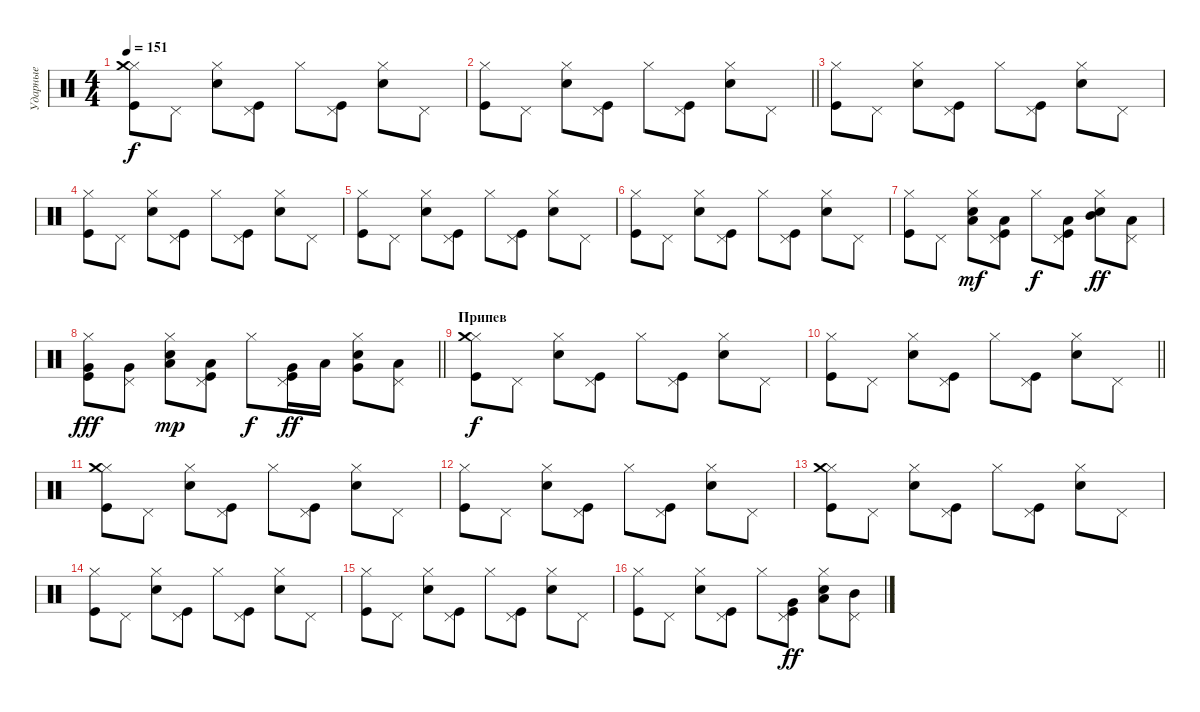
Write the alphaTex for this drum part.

\track ("Ударные" "Ударные") {instrument percussion}
\staff {score}
\articulation defaults
\ts (4 4)
\tempo 151
\clef neutral
\ks c
("Hi-Hat (closed)" "Kick (hit)" "Crash medium (hit)").8{dy f} "Pedal Hi-Hat (hit)".8 ("Hi-Hat (closed)" "Snare (hit) 2").8 ("Pedal Hi-Hat (hit)" "Kick (hit)").8 "Hi-Hat (closed)".8 ("Pedal Hi-Hat (hit)" "Kick (hit)").8 ("Hi-Hat (closed)" "Snare (hit) 2").8 "Pedal Hi-Hat (hit)".8 |
\barLineRight lightlight
("Hi-Hat (closed)" "Kick (hit)").8 "Pedal Hi-Hat (hit)".8 ("Hi-Hat (closed)" "Snare (hit) 2").8 ("Pedal Hi-Hat (hit)" "Kick (hit)").8 "Hi-Hat (closed)".8 ("Pedal Hi-Hat (hit)" "Kick (hit)").8 ("Hi-Hat (closed)" "Snare (hit) 2").8 "Pedal Hi-Hat (hit)".8 |
("Hi-Hat (closed)" "Kick (hit)").8 "Pedal Hi-Hat (hit)".8 ("Hi-Hat (closed)" "Snare (hit) 2").8 ("Pedal Hi-Hat (hit)" "Kick (hit)").8 "Hi-Hat (closed)".8 ("Pedal Hi-Hat (hit)" "Kick (hit)").8 ("Hi-Hat (closed)" "Snare (hit) 2").8 "Pedal Hi-Hat (hit)".8 |
("Hi-Hat (closed)" "Kick (hit)").8 "Pedal Hi-Hat (hit)".8 ("Hi-Hat (closed)" "Snare (hit) 2").8 ("Pedal Hi-Hat (hit)" "Kick (hit)").8 "Hi-Hat (closed)".8 ("Pedal Hi-Hat (hit)" "Kick (hit)").8 ("Hi-Hat (closed)" "Snare (hit) 2").8 "Pedal Hi-Hat (hit)".8 |
("Hi-Hat (closed)" "Kick (hit)").8 "Pedal Hi-Hat (hit)".8 ("Hi-Hat (closed)" "Snare (hit) 2").8 ("Pedal Hi-Hat (hit)" "Kick (hit)").8 "Hi-Hat (closed)".8 ("Pedal Hi-Hat (hit)" "Kick (hit)").8 ("Hi-Hat (closed)" "Snare (hit) 2").8 "Pedal Hi-Hat (hit)".8 |
("Hi-Hat (closed)" "Kick (hit)").8 "Pedal Hi-Hat (hit)".8 ("Hi-Hat (closed)" "Snare (hit) 2").8 ("Pedal Hi-Hat (hit)" "Kick (hit)").8 "Hi-Hat (closed)".8 ("Pedal Hi-Hat (hit)" "Kick (hit)").8 ("Hi-Hat (closed)" "Snare (hit) 2").8 "Pedal Hi-Hat (hit)".8 |
("Hi-Hat (closed)" "Kick (hit)").8 "Pedal Hi-Hat (hit)".8 ("Hi-Hat (closed)" "Snare (hit) 2" "Low Floor Tom (hit)").8{dy mf} ("Pedal Hi-Hat (hit)" "Kick (hit)" "Low Floor Tom (hit)").8 "Hi-Hat (closed)".8{dy f} ("Pedal Hi-Hat (hit)" "Kick (hit)" "Low Floor Tom (hit)").8 ("Hi-Hat (closed)" "Snare (hit) 2" "Mid Tom (hit)").8{dy ff} ("Pedal Hi-Hat (hit)" "Low Tom (hit)").8 |
\barLineRight lightlight
("Hi-Hat (closed)" "Kick (hit)" "Very Low Tom (hit)").8{dy fff} ("Pedal Hi-Hat (hit)" "Very Low Tom (hit)").8 ("Hi-Hat (closed)" "Snare (hit) 2" "Low Floor Tom (hit)").8{dy mp} ("Pedal Hi-Hat (hit)" "Kick (hit)" "Low Floor Tom (hit)").8 "Hi-Hat (closed)".8{dy f} ("Pedal Hi-Hat (hit)" "Kick (hit)" "Very Low Tom (hit)").16{dy ff} "Low Tom (hit)".16 ("Hi-Hat (closed)" "Snare (hit) 2" "Very Low Tom (hit)").8 ("Pedal Hi-Hat (hit)" "Low Floor Tom (hit)").8 |
\section ("" "Припев")
("Hi-Hat (closed)" "Kick (hit)" "Crash medium (hit)").8{dy f} "Pedal Hi-Hat (hit)".8 ("Hi-Hat (closed)" "Snare (hit) 2").8 ("Pedal Hi-Hat (hit)" "Kick (hit)").8 "Hi-Hat (closed)".8 ("Pedal Hi-Hat (hit)" "Kick (hit)").8 ("Hi-Hat (closed)" "Snare (hit) 2").8 "Pedal Hi-Hat (hit)".8 |
\barLineRight lightlight
("Hi-Hat (closed)" "Kick (hit)").8 "Pedal Hi-Hat (hit)".8 ("Hi-Hat (closed)" "Snare (hit) 2").8 ("Pedal Hi-Hat (hit)" "Kick (hit)").8 "Hi-Hat (closed)".8 ("Pedal Hi-Hat (hit)" "Kick (hit)").8 ("Hi-Hat (closed)" "Snare (hit) 2").8 "Pedal Hi-Hat (hit)".8 |
("Hi-Hat (closed)" "Kick (hit)" "Crash medium (hit)").8 "Pedal Hi-Hat (hit)".8 ("Hi-Hat (closed)" "Snare (hit) 2").8 ("Pedal Hi-Hat (hit)" "Kick (hit)").8 "Hi-Hat (closed)".8 ("Pedal Hi-Hat (hit)" "Kick (hit)").8 ("Hi-Hat (closed)" "Snare (hit) 2").8 "Pedal Hi-Hat (hit)".8 |
("Hi-Hat (closed)" "Kick (hit)").8 "Pedal Hi-Hat (hit)".8 ("Hi-Hat (closed)" "Snare (hit) 2").8 ("Pedal Hi-Hat (hit)" "Kick (hit)").8 "Hi-Hat (closed)".8 ("Pedal Hi-Hat (hit)" "Kick (hit)").8 ("Hi-Hat (closed)" "Snare (hit) 2").8 "Pedal Hi-Hat (hit)".8 |
("Hi-Hat (closed)" "Kick (hit)" "Crash medium (hit)").8 "Pedal Hi-Hat (hit)".8 ("Hi-Hat (closed)" "Snare (hit) 2").8 ("Pedal Hi-Hat (hit)" "Kick (hit)").8 "Hi-Hat (closed)".8 ("Pedal Hi-Hat (hit)" "Kick (hit)").8 ("Hi-Hat (closed)" "Snare (hit) 2").8 "Pedal Hi-Hat (hit)".8 |
("Hi-Hat (closed)" "Kick (hit)").8 "Pedal Hi-Hat (hit)".8 ("Hi-Hat (closed)" "Snare (hit) 2").8 ("Pedal Hi-Hat (hit)" "Kick (hit)").8 "Hi-Hat (closed)".8 ("Pedal Hi-Hat (hit)" "Kick (hit)").8 ("Hi-Hat (closed)" "Snare (hit) 2").8 "Pedal Hi-Hat (hit)".8 |
("Hi-Hat (closed)" "Kick (hit)").8 "Pedal Hi-Hat (hit)".8 ("Hi-Hat (closed)" "Snare (hit) 2").8 ("Pedal Hi-Hat (hit)" "Kick (hit)").8 "Hi-Hat (closed)".8 ("Pedal Hi-Hat (hit)" "Kick (hit)").8 ("Hi-Hat (closed)" "Snare (hit) 2").8 "Pedal Hi-Hat (hit)".8 |
("Hi-Hat (closed)" "Kick (hit)").8 "Pedal Hi-Hat (hit)".8 ("Hi-Hat (closed)" "Snare (hit) 2").8 ("Pedal Hi-Hat (hit)" "Kick (hit)").8 "Hi-Hat (closed)".8 ("Pedal Hi-Hat (hit)" "Kick (hit)" "Very Low Tom (hit)").8{dy ff} ("Hi-Hat (closed)" "Snare (hit) 2" "Low Tom (hit)").8 ("Pedal Hi-Hat (hit)" "Mid Tom (hit)").8
